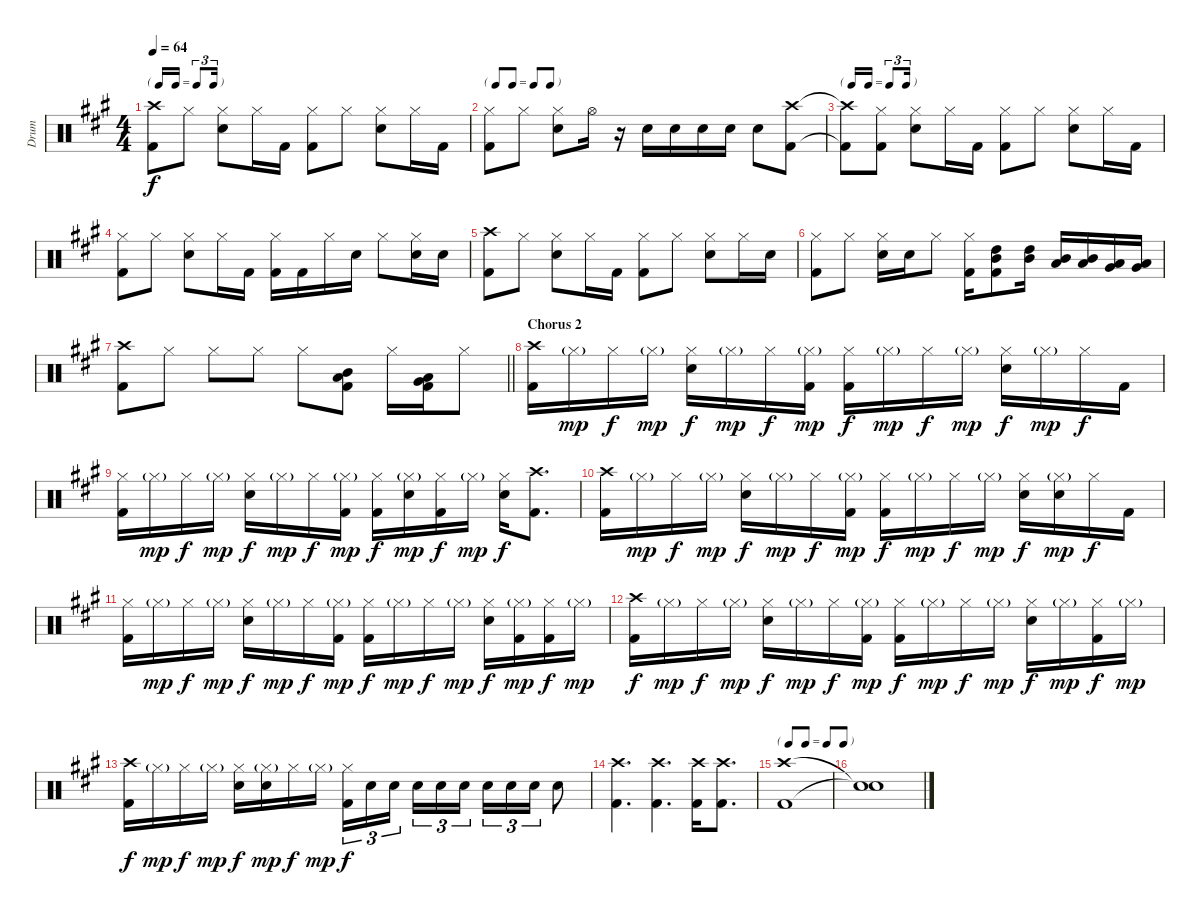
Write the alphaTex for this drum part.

\track ("Drum" "Drum") {instrument percussion}
\staff {score}
\articulation defaults
\ts (4 4)
\tf triplet16th
\tempo 64
\clef neutral
\ks a
("Crash high (hit)" "Kick (hit) 2").8{dy f} "Hi-Hat (closed)".8 ("Hi-Hat (closed)" "Electric Snare (hit)").8 "Hi-Hat (closed)".16 "Kick (hit) 2".16 ("Hi-Hat (closed)" "Kick (hit) 2").8 "Hi-Hat (closed)".8 ("Hi-Hat (closed)" "Electric Snare (hit)").8 "Hi-Hat (closed)".16 "Kick (hit) 2".16 |
\tf none
("Hi-Hat (closed)" "Kick (hit) 2").8 "Hi-Hat (closed)".8 ("Hi-Hat (closed)" "Electric Snare (hit)").8 "Hi-Hat (open)".16 r.16 "Electric Snare (hit)".16 "Electric Snare (hit)".16 "Electric Snare (hit)".16 "Electric Snare (hit)".16 "Electric Snare (hit)".8 ("Crash high (hit)" "Kick (hit) 2").8 |
\tf triplet16th
("Crash high (hit)"{t} "Kick (hit) 2"{t}).8 ("Hi-Hat (closed)" "Kick (hit) 2").8 ("Hi-Hat (closed)" "Electric Snare (hit)").8 "Hi-Hat (closed)".16 "Kick (hit) 2".16 ("Hi-Hat (closed)" "Kick (hit) 2").8 "Hi-Hat (closed)".8 ("Hi-Hat (closed)" "Electric Snare (hit)").8 "Hi-Hat (closed)".16 "Kick (hit) 2".16 |
("Hi-Hat (closed)" "Kick (hit) 2").8 "Hi-Hat (closed)".8 ("Hi-Hat (closed)" "Electric Snare (hit)").8 "Hi-Hat (closed)".16 "Kick (hit) 2".16 ("Hi-Hat (closed)" "Kick (hit) 2").16 "Kick (hit) 2".16 "Hi-Hat (closed)".16 "Electric Snare (hit)".16 "Hi-Hat (closed)".8 ("Hi-Hat (closed)" "Electric Snare (hit)").16 "Electric Snare (hit)".16 |
("Crash high (hit)" "Kick (hit) 2").8 "Hi-Hat (closed)".8 ("Hi-Hat (closed)" "Electric Snare (hit)").8 "Hi-Hat (closed)".16 "Kick (hit) 2".16 ("Hi-Hat (closed)" "Kick (hit) 2").8 "Hi-Hat (closed)".8 ("Hi-Hat (closed)" "Electric Snare (hit)").8 "Hi-Hat (closed)".16 "Electric Snare (hit)".16 |
("Hi-Hat (closed)" "Kick (hit) 2").8 "Hi-Hat (closed)".8 ("Hi-Hat (closed)" "Electric Snare (hit)").16 "Electric Snare (hit)".16 "Hi-Hat (closed)".8 ("Hi-Hat (closed)" "Kick (hit) 2").16 ("Mid Tom (hit)" "High Tom (hit)" "Kick (hit) 2").8 ("Mid Tom (hit)" "High Tom (hit)").16 ("Low Tom (hit)" "Mid Tom (hit)").16 ("Low Tom (hit)" "Mid Tom (hit)").16 ("Very Low Tom (hit)" "Low Tom (hit)").16 ("Very Low Tom (hit)" "Low Tom (hit)").16 |
\barLineRight lightlight
("Crash high (hit)" "Kick (hit) 2").8 "Hi-Hat (closed)".8 "Hi-Hat (closed)".8 "Hi-Hat (closed)".8 "Hi-Hat (closed)".8 ("Mid Tom (hit)" "Low Tom (hit)" "Kick (hit) 2").8 "Hi-Hat (closed)".16 ("Low Tom (hit)" "Very Low Tom (hit)" "Kick (hit) 2").16 "Hi-Hat (closed)".8 |
\section ("" "Chorus 2")
("Crash high (hit)" "Kick (hit) 2").16 "Hi-Hat (closed)"{g}.16{dy mp} "Hi-Hat (closed)".16{dy f} "Hi-Hat (closed)"{g}.16{dy mp} ("Hi-Hat (closed)" "Electric Snare (hit)").16{dy f} "Hi-Hat (closed)"{g}.16{dy mp} "Hi-Hat (closed)".16{dy f} ("Hi-Hat (closed)"{g} "Kick (hit) 2").16{dy mp} ("Hi-Hat (closed)" "Kick (hit) 2").16{dy f} "Hi-Hat (closed)"{g}.16{dy mp} "Hi-Hat (closed)".16{dy f} "Hi-Hat (closed)"{g}.16{dy mp} ("Hi-Hat (closed)" "Electric Snare (hit)").16{dy f} "Hi-Hat (closed)"{g}.16{dy mp} "Hi-Hat (closed)".16{dy f} "Kick (hit) 2".16 |
("Hi-Hat (closed)" "Kick (hit) 2").16 "Hi-Hat (closed)"{g}.16{dy mp} "Hi-Hat (closed)".16{dy f} "Hi-Hat (closed)"{g}.16{dy mp} ("Hi-Hat (closed)" "Electric Snare (hit)").16{dy f} "Hi-Hat (closed)"{g}.16{dy mp} "Hi-Hat (closed)".16{dy f} ("Hi-Hat (closed)"{g} "Kick (hit) 2").16{dy mp} ("Hi-Hat (closed)" "Kick (hit) 2").16{dy f} ("Hi-Hat (closed)"{g} "Electric Snare (hit)").16{dy mp} ("Hi-Hat (closed)" "Kick (hit) 2").16{dy f} "Hi-Hat (closed)"{g}.16{dy mp} ("Hi-Hat (closed)" "Electric Snare (hit)").16{dy f} ("Crash high (hit)" "Kick (hit) 2").8{d} |
("Crash high (hit)" "Kick (hit) 2").16 "Hi-Hat (closed)"{g}.16{dy mp} "Hi-Hat (closed)".16{dy f} "Hi-Hat (closed)"{g}.16{dy mp} ("Hi-Hat (closed)" "Electric Snare (hit)").16{dy f} "Hi-Hat (closed)"{g}.16{dy mp} "Hi-Hat (closed)".16{dy f} ("Hi-Hat (closed)"{g} "Kick (hit) 2").16{dy mp} ("Hi-Hat (closed)" "Kick (hit) 2").16{dy f} "Hi-Hat (closed)"{g}.16{dy mp} "Hi-Hat (closed)".16{dy f} "Hi-Hat (closed)"{g}.16{dy mp} ("Hi-Hat (closed)" "Electric Snare (hit)").16{dy f} ("Hi-Hat (closed)"{g} "Electric Snare (hit)").16{dy mp} "Hi-Hat (closed)".16{dy f} "Kick (hit) 2".16 |
("Hi-Hat (closed)" "Kick (hit) 2").16 "Hi-Hat (closed)"{g}.16{dy mp} "Hi-Hat (closed)".16{dy f} "Hi-Hat (closed)"{g}.16{dy mp} ("Hi-Hat (closed)" "Electric Snare (hit)").16{dy f} "Hi-Hat (closed)"{g}.16{dy mp} "Hi-Hat (closed)".16{dy f} ("Hi-Hat (closed)"{g} "Kick (hit) 2").16{dy mp} ("Hi-Hat (closed)" "Kick (hit) 2").16{dy f} "Hi-Hat (closed)"{g}.16{dy mp} "Hi-Hat (closed)".16{dy f} "Hi-Hat (closed)"{g}.16{dy mp} ("Hi-Hat (closed)" "Electric Snare (hit)").16{dy f} ("Hi-Hat (closed)"{g} "Kick (hit) 2").16{dy mp} ("Hi-Hat (closed)" "Kick (hit) 2").16{dy f} "Hi-Hat (closed)"{g}.16{dy mp} |
("Crash high (hit)" "Kick (hit) 2").16{dy f} "Hi-Hat (closed)"{g}.16{dy mp} "Hi-Hat (closed)".16{dy f} "Hi-Hat (closed)"{g}.16{dy mp} ("Hi-Hat (closed)" "Electric Snare (hit)").16{dy f} "Hi-Hat (closed)"{g}.16{dy mp} "Hi-Hat (closed)".16{dy f} ("Hi-Hat (closed)"{g} "Kick (hit) 2").16{dy mp} ("Hi-Hat (closed)" "Kick (hit) 2").16{dy f} "Hi-Hat (closed)"{g}.16{dy mp} "Hi-Hat (closed)".16{dy f} "Hi-Hat (closed)"{g}.16{dy mp} ("Hi-Hat (closed)" "Electric Snare (hit)").16{dy f} "Hi-Hat (closed)"{g}.16{dy mp} ("Hi-Hat (closed)" "Kick (hit) 2").16{dy f} "Hi-Hat (closed)"{g}.16{dy mp} |
("Crash high (hit)" "Kick (hit) 2").16{dy f} "Hi-Hat (closed)"{g}.16{dy mp} "Hi-Hat (closed)".16{dy f} "Hi-Hat (closed)"{g}.16{dy mp} ("Hi-Hat (closed)" "Electric Snare (hit)").16{dy f} ("Hi-Hat (closed)"{g} "Electric Snare (hit)").16{dy mp} "Hi-Hat (closed)".16{dy f} "Hi-Hat (closed)"{g}.16{dy mp} ("Hi-Hat (closed)" "Kick (hit) 2").16{tu (3 2) dy f} "Electric Snare (hit)".16{tu (3 2)} "Electric Snare (hit)".16{tu (3 2) beam splitsecondary} "Electric Snare (hit)".16{tu (3 2)} "Electric Snare (hit)".16{tu (3 2)} "Electric Snare (hit)".16{tu (3 2)} "Electric Snare (hit)".16{tu (3 2)} "Electric Snare (hit)".16{tu (3 2)} "Electric Snare (hit)".16{tu (3 2)} "Electric Snare (hit)".8 |
("Crash high (hit)" "Kick (hit) 2").4{d} ("Crash high (hit)" "Kick (hit) 2").4{d} ("Crash high (hit)" "Kick (hit) 2").16 ("Crash high (hit)" "Kick (hit) 2").8{d} |
\tf none
("Crash high (hit)" "Kick (hit) 2").1 |
("Snare (hit)"{t} "Snare (hit)"{t}).1
